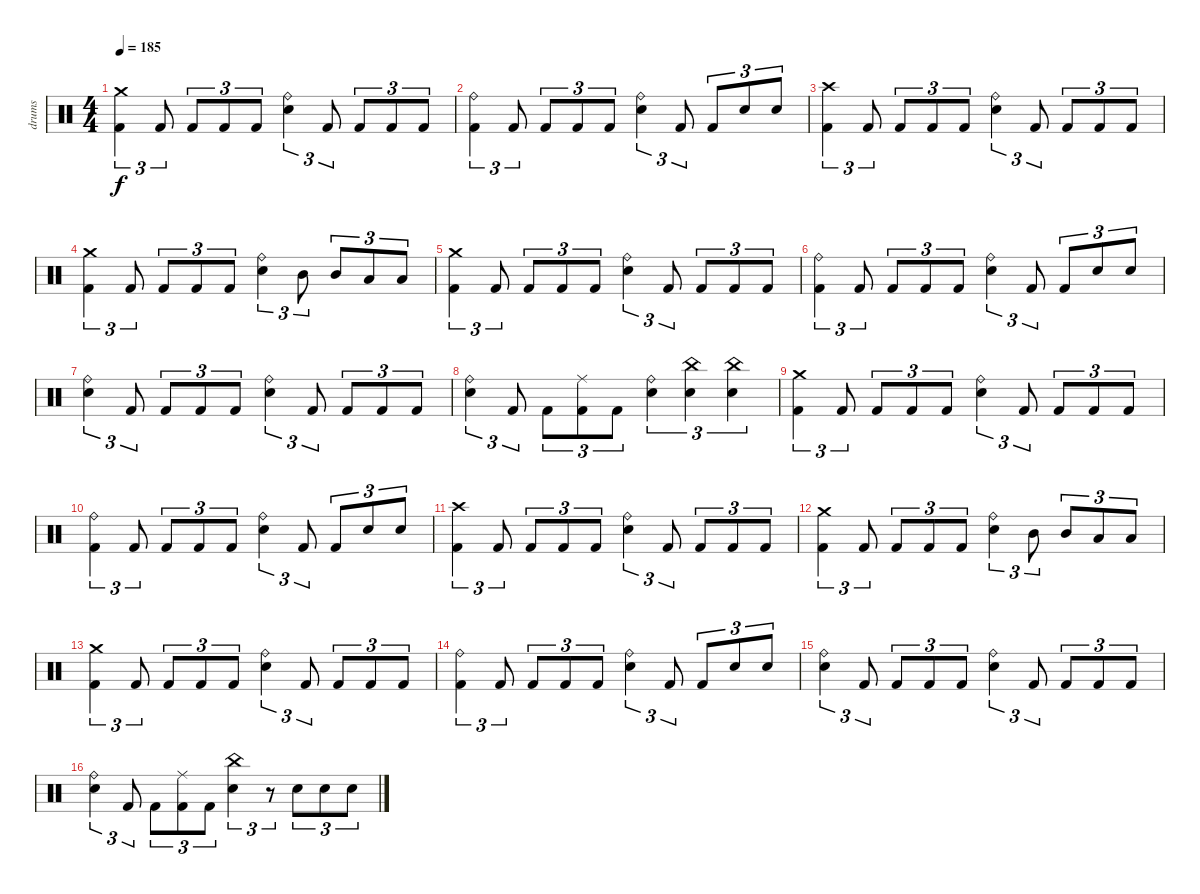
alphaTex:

\track ("drums" "drums") {instrument percussion}
\staff {score}
\articulation defaults
\ts (4 4)
\tempo 185
\clef neutral
\ks c
("Crash medium (hit)" "Kick (hit) 2").4{tu (3 2) dy f} "Kick (hit) 2".8{tu (3 2)} "Kick (hit) 2".8{tu (3 2)} "Kick (hit) 2".8{tu (3 2)} "Kick (hit) 2".8{tu (3 2)} ("Ride (bell)" "Snare (hit) 2").4{tu (3 2)} "Kick (hit) 2".8{tu (3 2)} "Kick (hit) 2".8{tu (3 2)} "Kick (hit) 2".8{tu (3 2)} "Kick (hit) 2".8{tu (3 2)} |
("Ride (bell)" "Kick (hit) 2").4{tu (3 2)} "Kick (hit) 2".8{tu (3 2)} "Kick (hit) 2".8{tu (3 2)} "Kick (hit) 2".8{tu (3 2)} "Kick (hit) 2".8{tu (3 2)} ("Ride (bell)" "Snare (hit) 2").4{tu (3 2)} "Kick (hit) 2".8{tu (3 2)} "Kick (hit) 2".8{tu (3 2)} "Snare (hit) 2".8{tu (3 2)} "Snare (hit) 2".8{tu (3 2)} |
("Crash high (hit)" "Kick (hit) 2").4{tu (3 2)} "Kick (hit) 2".8{tu (3 2)} "Kick (hit) 2".8{tu (3 2)} "Kick (hit) 2".8{tu (3 2)} "Kick (hit) 2".8{tu (3 2)} ("Ride (bell)" "Snare (hit) 2").4{tu (3 2)} "Kick (hit) 2".8{tu (3 2)} "Kick (hit) 2".8{tu (3 2)} "Kick (hit) 2".8{tu (3 2)} "Kick (hit) 2".8{tu (3 2)} |
("Crash medium (hit)" "Kick (hit) 2").4{tu (3 2)} "Kick (hit) 2".8{tu (3 2)} "Kick (hit) 2".8{tu (3 2)} "Kick (hit) 2".8{tu (3 2)} "Kick (hit) 2".8{tu (3 2)} ("Ride (bell)" "Snare (hit) 2").4{tu (3 2)} "Mid Tom (hit)".8{tu (3 2)} "Mid Tom (hit)".8{tu (3 2)} "Low Tom (hit)".8{tu (3 2)} "Low Tom (hit)".8{tu (3 2)} |
("Crash medium (hit)" "Kick (hit) 2").4{tu (3 2)} "Kick (hit) 2".8{tu (3 2)} "Kick (hit) 2".8{tu (3 2)} "Kick (hit) 2".8{tu (3 2)} "Kick (hit) 2".8{tu (3 2)} ("Ride (bell)" "Snare (hit) 2").4{tu (3 2)} "Kick (hit) 2".8{tu (3 2)} "Kick (hit) 2".8{tu (3 2)} "Kick (hit) 2".8{tu (3 2)} "Kick (hit) 2".8{tu (3 2)} |
("Ride (bell)" "Kick (hit) 2").4{tu (3 2)} "Kick (hit) 2".8{tu (3 2)} "Kick (hit) 2".8{tu (3 2)} "Kick (hit) 2".8{tu (3 2)} "Kick (hit) 2".8{tu (3 2)} ("Ride (bell)" "Snare (hit) 2").4{tu (3 2)} "Kick (hit) 2".8{tu (3 2)} "Kick (hit) 2".8{tu (3 2)} "Snare (hit) 2".8{tu (3 2)} "Snare (hit) 2".8{tu (3 2)} |
("Ride (bell)" "Snare (hit) 2").4{tu (3 2)} "Kick (hit) 2".8{tu (3 2)} "Kick (hit) 2".8{tu (3 2)} "Kick (hit) 2".8{tu (3 2)} "Kick (hit) 2".8{tu (3 2)} ("Ride (bell)" "Snare (hit) 2").4{tu (3 2)} "Kick (hit) 2".8{tu (3 2)} "Kick (hit) 2".8{tu (3 2)} "Kick (hit) 2".8{tu (3 2)} "Kick (hit) 2".8{tu (3 2)} |
("Ride (bell)" "Snare (hit) 2").4{tu (3 2)} "Kick (hit) 2".8{tu (3 2)} "Kick (hit) 2".8{tu (3 2)} ("Ride (middle)" "Kick (hit) 2").8{tu (3 2)} "Kick (hit) 2".8{tu (3 2)} ("Ride (bell)" "Snare (hit) 2").4{tu (3 2)} ("China (hit)" "Snare (hit) 2").4{tu (3 2)} ("China (hit)" "Snare (hit) 2").4{tu (3 2)} |
("Crash medium (hit)" "Kick (hit) 2").4{tu (3 2)} "Kick (hit) 2".8{tu (3 2)} "Kick (hit) 2".8{tu (3 2)} "Kick (hit) 2".8{tu (3 2)} "Kick (hit) 2".8{tu (3 2)} ("Ride (bell)" "Snare (hit) 2").4{tu (3 2)} "Kick (hit) 2".8{tu (3 2)} "Kick (hit) 2".8{tu (3 2)} "Kick (hit) 2".8{tu (3 2)} "Kick (hit) 2".8{tu (3 2)} |
("Ride (bell)" "Kick (hit) 2").4{tu (3 2)} "Kick (hit) 2".8{tu (3 2)} "Kick (hit) 2".8{tu (3 2)} "Kick (hit) 2".8{tu (3 2)} "Kick (hit) 2".8{tu (3 2)} ("Ride (bell)" "Snare (hit) 2").4{tu (3 2)} "Kick (hit) 2".8{tu (3 2)} "Kick (hit) 2".8{tu (3 2)} "Snare (hit) 2".8{tu (3 2)} "Snare (hit) 2".8{tu (3 2)} |
("Crash high (hit)" "Kick (hit) 2").4{tu (3 2)} "Kick (hit) 2".8{tu (3 2)} "Kick (hit) 2".8{tu (3 2)} "Kick (hit) 2".8{tu (3 2)} "Kick (hit) 2".8{tu (3 2)} ("Ride (bell)" "Snare (hit) 2").4{tu (3 2)} "Kick (hit) 2".8{tu (3 2)} "Kick (hit) 2".8{tu (3 2)} "Kick (hit) 2".8{tu (3 2)} "Kick (hit) 2".8{tu (3 2)} |
("Crash medium (hit)" "Kick (hit) 2").4{tu (3 2)} "Kick (hit) 2".8{tu (3 2)} "Kick (hit) 2".8{tu (3 2)} "Kick (hit) 2".8{tu (3 2)} "Kick (hit) 2".8{tu (3 2)} ("Ride (bell)" "Snare (hit) 2").4{tu (3 2)} "Mid Tom (hit)".8{tu (3 2)} "Mid Tom (hit)".8{tu (3 2)} "Low Tom (hit)".8{tu (3 2)} "Low Tom (hit)".8{tu (3 2)} |
("Crash medium (hit)" "Kick (hit) 2").4{tu (3 2)} "Kick (hit) 2".8{tu (3 2)} "Kick (hit) 2".8{tu (3 2)} "Kick (hit) 2".8{tu (3 2)} "Kick (hit) 2".8{tu (3 2)} ("Ride (bell)" "Snare (hit) 2").4{tu (3 2)} "Kick (hit) 2".8{tu (3 2)} "Kick (hit) 2".8{tu (3 2)} "Kick (hit) 2".8{tu (3 2)} "Kick (hit) 2".8{tu (3 2)} |
("Ride (bell)" "Kick (hit) 2").4{tu (3 2)} "Kick (hit) 2".8{tu (3 2)} "Kick (hit) 2".8{tu (3 2)} "Kick (hit) 2".8{tu (3 2)} "Kick (hit) 2".8{tu (3 2)} ("Ride (bell)" "Snare (hit) 2").4{tu (3 2)} "Kick (hit) 2".8{tu (3 2)} "Kick (hit) 2".8{tu (3 2)} "Snare (hit) 2".8{tu (3 2)} "Snare (hit) 2".8{tu (3 2)} |
("Ride (bell)" "Snare (hit) 2").4{tu (3 2)} "Kick (hit) 2".8{tu (3 2)} "Kick (hit) 2".8{tu (3 2)} "Kick (hit) 2".8{tu (3 2)} "Kick (hit) 2".8{tu (3 2)} ("Ride (bell)" "Snare (hit) 2").4{tu (3 2)} "Kick (hit) 2".8{tu (3 2)} "Kick (hit) 2".8{tu (3 2)} "Kick (hit) 2".8{tu (3 2)} "Kick (hit) 2".8{tu (3 2)} |
("Ride (bell)" "Snare (hit) 2").4{tu (3 2)} "Kick (hit) 2".8{tu (3 2)} "Kick (hit) 2".8{tu (3 2)} ("Ride (middle)" "Kick (hit) 2").8{tu (3 2)} "Kick (hit) 2".8{tu (3 2)} ("China (hit)" "Snare (hit) 2").4{tu (3 2)} r.8{tu (3 2)} "Snare (hit) 2".8{tu (3 2)} "Snare (hit) 2".8{tu (3 2)} "Snare (hit) 2".8{tu (3 2)}
